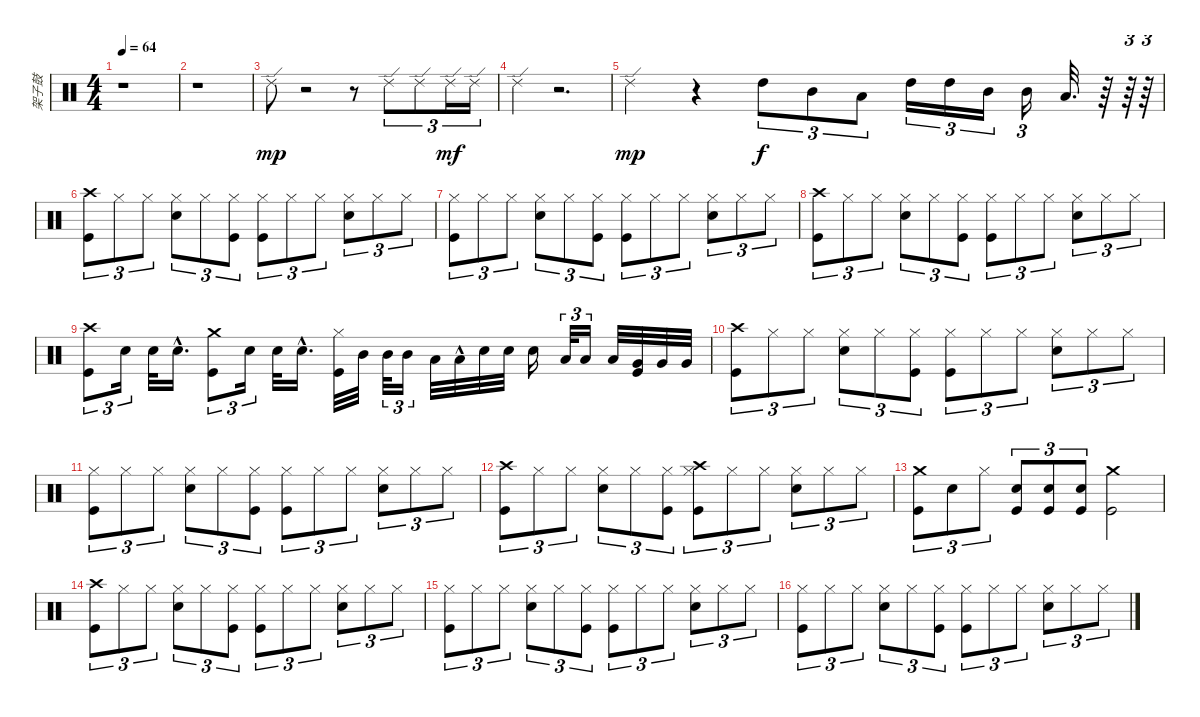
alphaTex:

\track ("架子鼓" "架子鼓") {instrument percussion}
\staff {score}
\articulation defaults
\ts (4 4)
\tempo 64
\clef neutral
\ks c
r.1{dy mp} |
r.1 |
"Ride (edge) 2".8 r.2 r.8 "Ride (edge) 2".8{tu (3 2)} "Ride (edge) 2".8{tu (3 2)} "Ride (edge) 2".16{tu (3 2) dy mf} "Ride (edge) 2".16{tu (3 2)} |
"Ride (edge) 2".4 r.2{d} |
"Ride (edge) 2".4{dy mp} r.4 "High Tom (hit)".8{tu (3 2) dy f} "Mid Tom (hit)".8{tu (3 2)} "Low Tom (hit)".8{tu (3 2)} "High Tom (hit)".16{tu (3 2)} "High Tom (hit)".16{tu (3 2)} "Mid Tom (hit)".16{tu (3 2)} "Mid Tom (hit)".16{tu (3 2)} "Low Tom (hit)".32{d} r.64 r.64{tu (3 2)} r.64{tu (3 2)} |
("Kick (hit)" "Crash high (hit)").8{tu (3 2)} "Hi-Hat (closed)".8{tu (3 2)} "Hi-Hat (closed)".8{tu (3 2)} ("Electric Snare (hit)" "Hi-Hat (closed)").8{tu (3 2)} "Hi-Hat (closed)".8{tu (3 2)} ("Hi-Hat (closed)" "Kick (hit)").8{tu (3 2)} ("Kick (hit)" "Hi-Hat (closed)").8{tu (3 2)} "Hi-Hat (closed)".8{tu (3 2)} "Hi-Hat (closed)".8{tu (3 2)} ("Electric Snare (hit)" "Hi-Hat (closed)").8{tu (3 2)} "Hi-Hat (closed)".8{tu (3 2)} "Hi-Hat (closed)".8{tu (3 2)} |
("Kick (hit)" "Hi-Hat (closed)").8{tu (3 2)} "Hi-Hat (closed)".8{tu (3 2)} "Hi-Hat (closed)".8{tu (3 2)} ("Electric Snare (hit)" "Hi-Hat (closed)").8{tu (3 2)} "Hi-Hat (closed)".8{tu (3 2)} ("Kick (hit)" "Hi-Hat (closed)").8{tu (3 2)} ("Hi-Hat (closed)" "Kick (hit)").8{tu (3 2)} "Hi-Hat (closed)".8{tu (3 2)} "Hi-Hat (closed)".8{tu (3 2)} ("Hi-Hat (closed)" "Electric Snare (hit)").8{tu (3 2)} "Hi-Hat (closed)".8{tu (3 2)} "Hi-Hat (closed)".8{tu (3 2)} |
("Kick (hit)" "Crash high (hit)").8{tu (3 2)} "Hi-Hat (closed)".8{tu (3 2)} "Hi-Hat (closed)".8{tu (3 2)} ("Electric Snare (hit)" "Hi-Hat (closed)").8{tu (3 2)} "Hi-Hat (closed)".8{tu (3 2)} ("Hi-Hat (closed)" "Kick (hit)").8{tu (3 2)} ("Kick (hit)" "Hi-Hat (closed)").8{tu (3 2)} "Hi-Hat (closed)".8{tu (3 2)} "Hi-Hat (closed)".8{tu (3 2)} ("Electric Snare (hit)" "Hi-Hat (closed)").8{tu (3 2)} "Hi-Hat (closed)".8{tu (3 2)} "Hi-Hat (closed)".8{tu (3 2)} |
("Kick (hit)" "Crash high (hit)").8{tu (3 2)} "Electric Snare (hit)".16{tu (3 2)} "Electric Snare (hit)".32 "Electric Snare (hit)"{hac}.16{d} ("Kick (hit)" "Crash medium (hit)").8{tu (3 2)} "Electric Snare (hit)".16{tu (3 2)} "Electric Snare (hit)".32 "Electric Snare (hit)"{hac}.16{d} ("Hi-Hat (closed)" "Kick (hit)").32 "Mid Tom (hit)".32 "Mid Tom (hit)".32{tu (3 2)} "Mid Tom (hit)".16{tu (3 2)} "Low Tom (hit)".32 "Low Tom (hit)"{hac}.32 "Electric Snare (hit)".32 "Electric Snare (hit)".32 "Electric Snare (hit)".16 "Low Tom (hit)".32{tu (3 2)} "Low Tom (hit)".16{tu (3 2)} "Low Tom (hit)".32 ("Kick (hit)" "Very Low Tom (hit)").32 "Very Low Tom (hit)".32 "Very Low Tom (hit)".32 |
("Kick (hit)" "Crash high (hit)").8{tu (3 2)} "Hi-Hat (closed)".8{tu (3 2)} "Hi-Hat (closed)".8{tu (3 2)} ("Electric Snare (hit)" "Hi-Hat (closed)").8{tu (3 2)} "Hi-Hat (closed)".8{tu (3 2)} ("Hi-Hat (closed)" "Kick (hit)").8{tu (3 2)} ("Kick (hit)" "Hi-Hat (closed)").8{tu (3 2)} "Hi-Hat (closed)".8{tu (3 2)} "Hi-Hat (closed)".8{tu (3 2)} ("Electric Snare (hit)" "Hi-Hat (closed)").8{tu (3 2)} "Hi-Hat (closed)".8{tu (3 2)} "Hi-Hat (closed)".8{tu (3 2)} |
("Kick (hit)" "Hi-Hat (closed)").8{tu (3 2)} "Hi-Hat (closed)".8{tu (3 2)} "Hi-Hat (closed)".8{tu (3 2)} ("Electric Snare (hit)" "Hi-Hat (closed)").8{tu (3 2)} "Hi-Hat (closed)".8{tu (3 2)} ("Kick (hit)" "Hi-Hat (closed)").8{tu (3 2)} ("Hi-Hat (closed)" "Kick (hit)").8{tu (3 2)} "Hi-Hat (closed)".8{tu (3 2)} "Hi-Hat (closed)".8{tu (3 2)} ("Hi-Hat (closed)" "Electric Snare (hit)").8{tu (3 2)} "Hi-Hat (closed)".8{tu (3 2)} "Hi-Hat (closed)".8{tu (3 2)} |
("Kick (hit)" "Crash high (hit)").8{tu (3 2)} "Hi-Hat (closed)".8{tu (3 2)} "Hi-Hat (closed)".8{tu (3 2)} ("Electric Snare (hit)" "Hi-Hat (closed)").8{tu (3 2)} "Hi-Hat (closed)".8{tu (3 2)} ("Hi-Hat (closed)" "Kick (hit)").8{tu (3 2)} ("Crash high (hit)" "Kick (hit)" "Hi-Hat (closed)").8{tu (3 2)} "Hi-Hat (closed)".8{tu (3 2)} "Hi-Hat (closed)".8{tu (3 2)} ("Electric Snare (hit)" "Hi-Hat (closed)").8{tu (3 2)} "Hi-Hat (closed)".8{tu (3 2)} "Hi-Hat (closed)".8{tu (3 2)} |
("Kick (hit)" "Crash medium (hit)").8{tu (3 2)} "Electric Snare (hit)".8{tu (3 2)} "Hi-Hat (closed)".8{tu (3 2)} ("Kick (hit)" "Electric Snare (hit)").8{tu (3 2)} ("Kick (hit)" "Electric Snare (hit)").8{tu (3 2)} ("Kick (hit)" "Electric Snare (hit)").8{tu (3 2)} ("Crash medium (hit)" "Kick (hit)").2 |
("Kick (hit)" "Crash high (hit)").8{tu (3 2)} "Hi-Hat (closed)".8{tu (3 2)} "Hi-Hat (closed)".8{tu (3 2)} ("Electric Snare (hit)" "Hi-Hat (closed)").8{tu (3 2)} "Hi-Hat (closed)".8{tu (3 2)} ("Hi-Hat (closed)" "Kick (hit)").8{tu (3 2)} ("Kick (hit)" "Hi-Hat (closed)").8{tu (3 2)} "Hi-Hat (closed)".8{tu (3 2)} "Hi-Hat (closed)".8{tu (3 2)} ("Electric Snare (hit)" "Hi-Hat (closed)").8{tu (3 2)} "Hi-Hat (closed)".8{tu (3 2)} "Hi-Hat (closed)".8{tu (3 2)} |
("Kick (hit)" "Hi-Hat (closed)").8{tu (3 2)} "Hi-Hat (closed)".8{tu (3 2)} "Hi-Hat (closed)".8{tu (3 2)} ("Electric Snare (hit)" "Hi-Hat (closed)").8{tu (3 2)} "Hi-Hat (closed)".8{tu (3 2)} ("Kick (hit)" "Hi-Hat (closed)").8{tu (3 2)} ("Hi-Hat (closed)" "Kick (hit)").8{tu (3 2)} "Hi-Hat (closed)".8{tu (3 2)} "Hi-Hat (closed)".8{tu (3 2)} ("Hi-Hat (closed)" "Electric Snare (hit)").8{tu (3 2)} "Hi-Hat (closed)".8{tu (3 2)} "Hi-Hat (closed)".8{tu (3 2)} |
("Kick (hit)" "Hi-Hat (closed)").8{tu (3 2)} "Hi-Hat (closed)".8{tu (3 2)} "Hi-Hat (closed)".8{tu (3 2)} ("Electric Snare (hit)" "Hi-Hat (closed)").8{tu (3 2)} "Hi-Hat (closed)".8{tu (3 2)} ("Kick (hit)" "Hi-Hat (closed)").8{tu (3 2)} ("Hi-Hat (closed)" "Kick (hit)").8{tu (3 2)} "Hi-Hat (closed)".8{tu (3 2)} "Hi-Hat (closed)".8{tu (3 2)} ("Hi-Hat (closed)" "Electric Snare (hit)").8{tu (3 2)} "Hi-Hat (closed)".8{tu (3 2)} "Hi-Hat (closed)".8{tu (3 2)}
